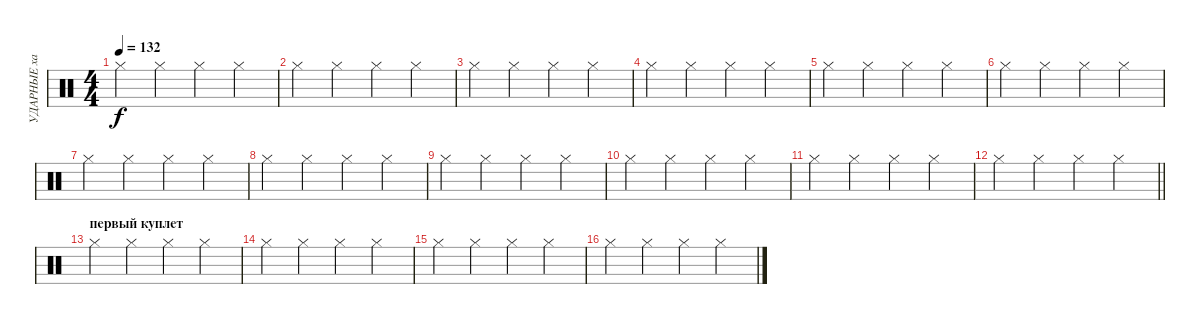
\track ("УДАРНЫЕ хай хэт" "УДАРНЫЕ ха") {instrument percussion}
\staff {score}
\articulation defaults
\ts (4 4)
\tempo 132
\clef neutral
\ks c "Hi-Hat (closed)".4{dy f} "Hi-Hat (closed)".4 "Hi-Hat (closed)".4 "Hi-Hat (closed)".4
|
"Hi-Hat (closed)".4 "Hi-Hat (closed)".4 "Hi-Hat (closed)".4 "Hi-Hat (closed)".4 |
"Hi-Hat (closed)".4 "Hi-Hat (closed)".4 "Hi-Hat (closed)".4 "Hi-Hat (closed)".4 |
"Hi-Hat (closed)".4 "Hi-Hat (closed)".4 "Hi-Hat (closed)".4 "Hi-Hat (closed)".4 |
"Hi-Hat (closed)".4 "Hi-Hat (closed)".4 "Hi-Hat (closed)".4 "Hi-Hat (closed)".4 |
"Hi-Hat (closed)".4 "Hi-Hat (closed)".4 "Hi-Hat (closed)".4 "Hi-Hat (closed)".4 |
"Hi-Hat (closed)".4 "Hi-Hat (closed)".4 "Hi-Hat (closed)".4 "Hi-Hat (closed)".4 |
"Hi-Hat (closed)".4 "Hi-Hat (closed)".4 "Hi-Hat (closed)".4 "Hi-Hat (closed)".4 |
"Hi-Hat (closed)".4 "Hi-Hat (closed)".4 "Hi-Hat (closed)".4 "Hi-Hat (closed)".4 |
"Hi-Hat (closed)".4 "Hi-Hat (closed)".4 "Hi-Hat (closed)".4 "Hi-Hat (closed)".4 |
"Hi-Hat (closed)".4 "Hi-Hat (closed)".4 "Hi-Hat (closed)".4 "Hi-Hat (closed)".4 |
\barLineRight lightlight "Hi-Hat (closed)".4 "Hi-Hat (closed)".4 "Hi-Hat (closed)".4 "Hi-Hat (closed)".4
|
\section ("" "первый куплет")
"Hi-Hat (closed)".4 "Hi-Hat (closed)".4 "Hi-Hat (closed)".4 "Hi-Hat (closed)".4 |
"Hi-Hat (closed)".4 "Hi-Hat (closed)".4 "Hi-Hat (closed)".4 "Hi-Hat (closed)".4 |
"Hi-Hat (closed)".4 "Hi-Hat (closed)".4 "Hi-Hat (closed)".4 "Hi-Hat (closed)".4 |
"Hi-Hat (closed)".4 "Hi-Hat (closed)".4 "Hi-Hat (closed)".4 "Hi-Hat (closed)".4
